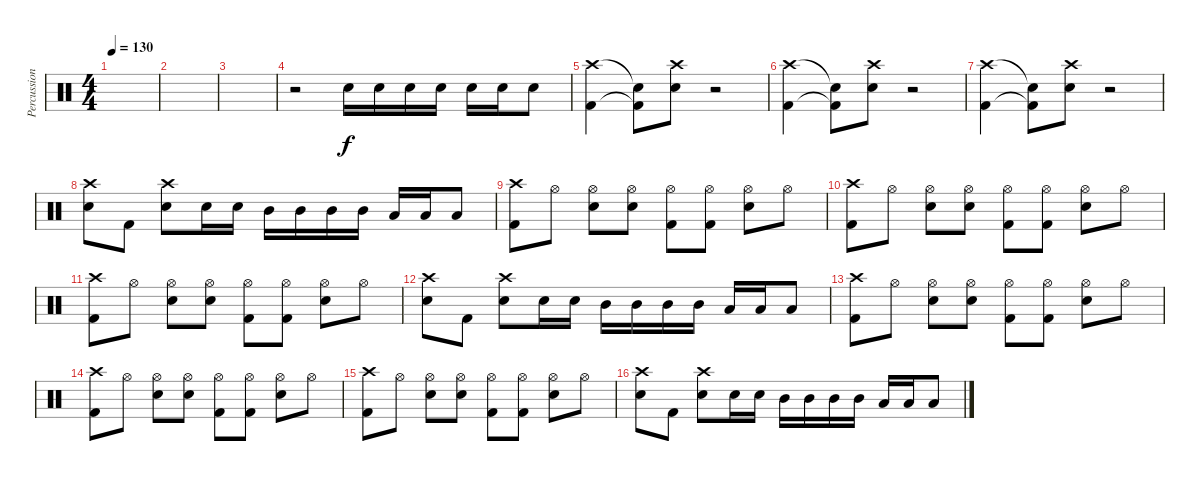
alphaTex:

\track ("Percussion" "Percussion") {instrument percussion}
\staff {score}
\articulation defaults
\ts (4 4)
\tempo 130
\clef neutral
\ks c
|
|
|
r.2 "Snare (hit) 2".16 "Snare (hit) 2".16 "Snare (hit) 2".16 "Snare (hit) 2".16 "Snare (hit) 2".16 "Snare (hit) 2".16 "Snare (hit) 2".8 |
("Crash high (hit)" "Kick (hit) 2").4 ("Snare (hit)"{t} "Kick (hit) 2"{t}).8 ("Crash high (hit)" "Snare (hit) 2").8 r.2 |
("Crash high (hit)" "Kick (hit) 2").4 ("Snare (hit)"{t} "Kick (hit) 2"{t}).8 ("Crash high (hit)" "Snare (hit) 2").8 r.2 |
("Crash high (hit)" "Kick (hit) 2").4 ("Snare (hit)"{t} "Kick (hit) 2"{t}).8 ("Crash high (hit)" "Snare (hit) 2").8 r.2 |
("Crash high (hit)" "Snare (hit) 2").8 "Kick (hit) 2".8 ("Crash high (hit)" "Snare (hit) 2").8 "Snare (hit) 2".16 "Snare (hit) 2".16 "Mid Tom (hit)".16 "Mid Tom (hit)".16 "Mid Tom (hit)".16 "Mid Tom (hit)".16 "Low Tom (hit)".16 "Low Tom (hit)".16 "Low Tom (hit)".8 |
("Crash high (hit)" "Kick (hit) 2").8 "Hi-Hat (open)".8 ("Hi-Hat (open)" "Snare (hit) 2").8 ("Hi-Hat (open)" "Snare (hit) 2").8 ("Hi-Hat (open)" "Kick (hit) 2").8 ("Hi-Hat (open)" "Kick (hit) 2").8 ("Hi-Hat (open)" "Snare (hit) 2").8 "Hi-Hat (open)".8 |
("Crash high (hit)" "Kick (hit) 2").8 "Hi-Hat (open)".8 ("Hi-Hat (open)" "Snare (hit) 2").8 ("Hi-Hat (open)" "Snare (hit) 2").8 ("Hi-Hat (open)" "Kick (hit) 2").8 ("Hi-Hat (open)" "Kick (hit) 2").8 ("Hi-Hat (open)" "Snare (hit) 2").8 "Hi-Hat (open)".8 |
("Crash high (hit)" "Kick (hit) 2").8 "Hi-Hat (open)".8 ("Hi-Hat (open)" "Snare (hit) 2").8 ("Hi-Hat (open)" "Snare (hit) 2").8 ("Hi-Hat (open)" "Kick (hit) 2").8 ("Hi-Hat (open)" "Kick (hit) 2").8 ("Hi-Hat (open)" "Snare (hit) 2").8 "Hi-Hat (open)".8 |
("Crash high (hit)" "Snare (hit) 2").8 "Kick (hit) 2".8 ("Crash high (hit)" "Snare (hit) 2").8 "Snare (hit) 2".16 "Snare (hit) 2".16 "Mid Tom (hit)".16 "Mid Tom (hit)".16 "Mid Tom (hit)".16 "Mid Tom (hit)".16 "Low Tom (hit)".16 "Low Tom (hit)".16 "Low Tom (hit)".8 |
("Crash high (hit)" "Kick (hit) 2").8 "Hi-Hat (open)".8 ("Hi-Hat (open)" "Snare (hit) 2").8 ("Hi-Hat (open)" "Snare (hit) 2").8 ("Hi-Hat (open)" "Kick (hit) 2").8 ("Hi-Hat (open)" "Kick (hit) 2").8 ("Hi-Hat (open)" "Snare (hit) 2").8 "Hi-Hat (open)".8 |
("Crash high (hit)" "Kick (hit) 2").8 "Hi-Hat (open)".8 ("Hi-Hat (open)" "Snare (hit) 2").8 ("Hi-Hat (open)" "Snare (hit) 2").8 ("Hi-Hat (open)" "Kick (hit) 2").8 ("Hi-Hat (open)" "Kick (hit) 2").8 ("Hi-Hat (open)" "Snare (hit) 2").8 "Hi-Hat (open)".8 |
("Crash high (hit)" "Kick (hit) 2").8 "Hi-Hat (open)".8 ("Hi-Hat (open)" "Snare (hit) 2").8 ("Hi-Hat (open)" "Snare (hit) 2").8 ("Hi-Hat (open)" "Kick (hit) 2").8 ("Hi-Hat (open)" "Kick (hit) 2").8 ("Hi-Hat (open)" "Snare (hit) 2").8 "Hi-Hat (open)".8 |
("Crash high (hit)" "Snare (hit) 2").8 "Kick (hit) 2".8 ("Crash high (hit)" "Snare (hit) 2").8 "Snare (hit) 2".16 "Snare (hit) 2".16 "Mid Tom (hit)".16 "Mid Tom (hit)".16 "Mid Tom (hit)".16 "Mid Tom (hit)".16 "Low Tom (hit)".16 "Low Tom (hit)".16 "Low Tom (hit)".8
